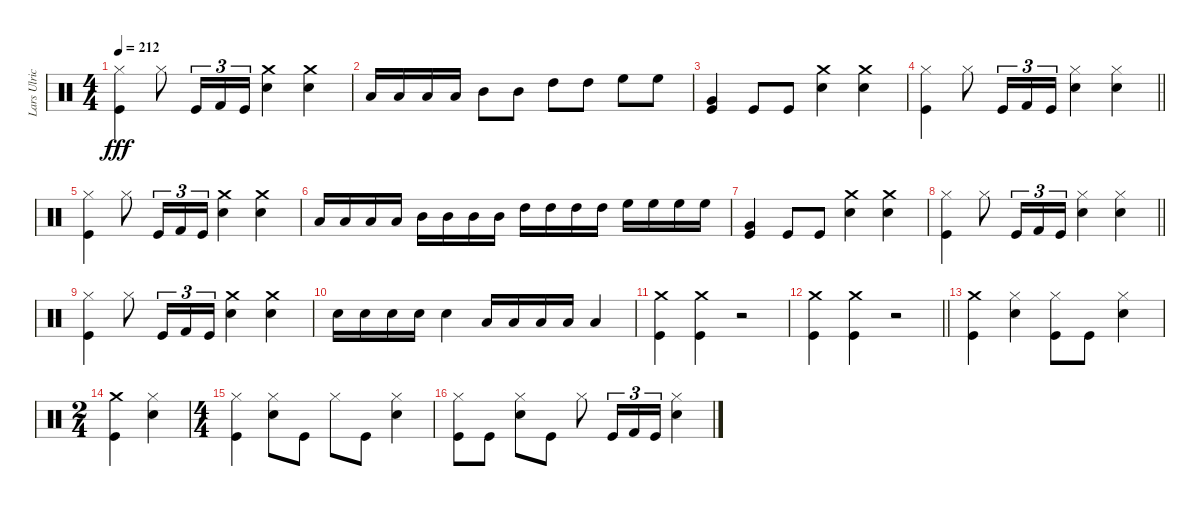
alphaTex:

\track ("Lars Ulrich" "Lars Ulric") {instrument percussion}
\staff {score}
\articulation defaults
\ts (4 4)
\tempo 212
\clef neutral
\ks c
("Hi-Hat (closed)" "Kick (hit)").4{dy fff} "Hi-Hat (closed)".8 "Kick (hit)".16{tu (3 2)} "Kick (hit) 2".16{tu (3 2)} "Kick (hit)".16{tu (3 2)} ("Crash medium (hit)" "Snare (hit) 2").4 ("Crash medium (hit)" "Snare (hit) 2").4 |
"Low Tom (hit)".16 "Low Tom (hit)".16 "Low Tom (hit)".16 "Low Tom (hit)".16 "Mid Tom (hit)".8 "Mid Tom (hit)".8 "High Tom (hit)".8 "High Tom (hit)".8 "High Floor Tom (hit)".8 "High Floor Tom (hit)".8 |
("Kick (hit)" "Very Low Tom (hit)").4 "Kick (hit)".8 "Kick (hit)".8 ("Crash medium (hit)" "Snare (hit) 2").4 ("Snare (hit) 2" "Crash medium (hit)").4 |
\barLineRight lightlight
("Kick (hit)" "Hi-Hat (closed)").4 "Hi-Hat (closed)".8 "Kick (hit)".16{tu (3 2)} "Kick (hit) 2".16{tu (3 2)} "Kick (hit)".16{tu (3 2)} ("Snare (hit) 2" "Hi-Hat (closed)").4 ("Snare (hit) 2" "Hi-Hat (closed)").4 |
("Hi-Hat (closed)" "Kick (hit)").4 "Hi-Hat (closed)".8 "Kick (hit)".16{tu (3 2)} "Kick (hit) 2".16{tu (3 2)} "Kick (hit)".16{tu (3 2)} ("Crash medium (hit)" "Snare (hit) 2").4 ("Crash medium (hit)" "Snare (hit) 2").4 |
"Low Tom (hit)".16 "Low Tom (hit)".16 "Low Tom (hit)".16 "Low Tom (hit)".16 "Mid Tom (hit)".16 "Mid Tom (hit)".16 "Mid Tom (hit)".16 "Mid Tom (hit)".16 "High Tom (hit)".16 "High Tom (hit)".16 "High Tom (hit)".16 "High Tom (hit)".16 "High Floor Tom (hit)".16 "High Floor Tom (hit)".16 "High Floor Tom (hit)".16 "High Floor Tom (hit)".16 |
("Kick (hit)" "Very Low Tom (hit)").4 "Kick (hit)".8 "Kick (hit)".8 ("Crash medium (hit)" "Snare (hit) 2").4 ("Crash medium (hit)" "Snare (hit) 2").4 |
\barLineRight lightlight
("Kick (hit)" "Hi-Hat (closed)").4 "Hi-Hat (closed)".8 "Kick (hit)".16{tu (3 2)} "Kick (hit) 2".16{tu (3 2)} "Kick (hit)".16{tu (3 2)} ("Snare (hit) 2" "Hi-Hat (closed)").4 ("Hi-Hat (closed)" "Snare (hit) 2").4 |
("Hi-Hat (closed)" "Kick (hit)").4 "Hi-Hat (closed)".8 "Kick (hit)".16{tu (3 2)} "Kick (hit) 2".16{tu (3 2)} "Kick (hit)".16{tu (3 2)} ("Crash medium (hit)" "Snare (hit) 2").4 ("Crash medium (hit)" "Snare (hit) 2").4 |
"Snare (hit) 2".16 "Snare (hit) 2".16 "Snare (hit) 2".16 "Snare (hit) 2".16 "Snare (hit) 2".4 "Low Tom (hit)".16 "Low Tom (hit)".16 "Low Tom (hit)".16 "Low Tom (hit)".16 "Low Tom (hit)".4 |
("Kick (hit)" "Crash medium (hit)").4 ("Crash medium (hit)" "Kick (hit)").4 r.2 |
\barLineRight lightlight
("Kick (hit)" "Crash medium (hit)").4 ("Crash medium (hit)" "Kick (hit)").4 r.2 |
("Kick (hit)" "Crash medium (hit)").4 ("Snare (hit) 2" "Hi-Hat (closed)").4 ("Kick (hit)" "Hi-Hat (closed)").8 "Kick (hit)".8 ("Snare (hit) 2" "Hi-Hat (closed)").4 |
\ts (2 4)
("Kick (hit)" "Crash medium (hit)").4 ("Hi-Hat (closed)" "Snare (hit) 2").4 |
\ts (4 4)
("Kick (hit)" "Hi-Hat (closed)").4 ("Snare (hit) 2" "Hi-Hat (closed)").8 "Kick (hit)".8 "Hi-Hat (closed)".8 "Kick (hit)".8 ("Snare (hit) 2" "Hi-Hat (closed)").4 |
("Hi-Hat (closed)" "Kick (hit)").8 "Kick (hit)".8 ("Snare (hit) 2" "Hi-Hat (closed)").8 "Kick (hit)".8 "Hi-Hat (closed)".8 "Kick (hit)".16{tu (3 2)} "Kick (hit) 2".16{tu (3 2)} "Kick (hit)".16{tu (3 2)} ("Snare (hit) 2" "Hi-Hat (closed)").4
